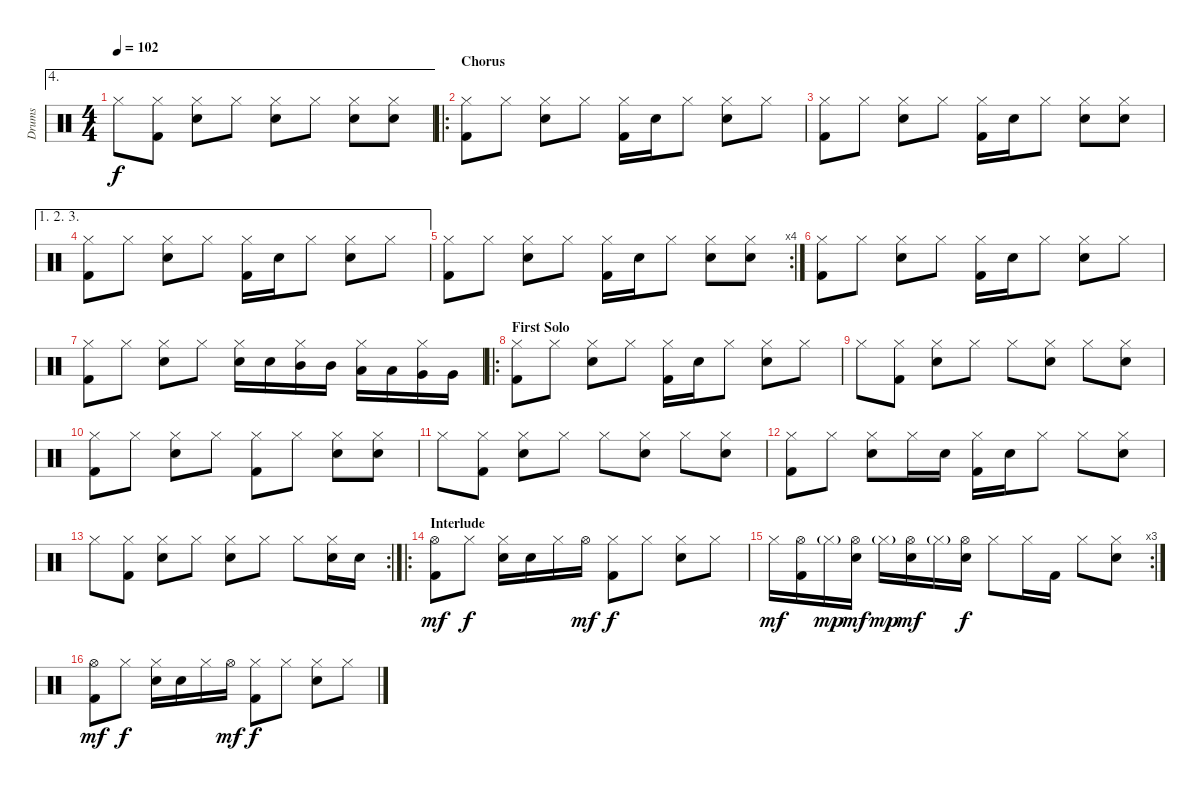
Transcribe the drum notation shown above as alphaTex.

\track ("Drums" "Drums") {instrument percussion}
\staff {score}
\articulation defaults
\ae 4
\ts (4 4)
\tempo 102
\clef neutral
\ks c "Hi-Hat (closed)".8{dy f}
("Hi-Hat (closed)" "Kick (hit) 2").8 ("Hi-Hat (closed)" "Electric Snare (hit)").8 "Hi-Hat (closed)".8 ("Hi-Hat (closed)" "Electric Snare (hit)").8 "Hi-Hat (closed)".8 ("Hi-Hat (closed)" "Electric Snare (hit)").8 ("Hi-Hat (closed)" "Electric Snare (hit)").8 |
\ro
\section ("" "Chorus")
("Hi-Hat (closed)" "Kick (hit) 2").8 "Hi-Hat (closed)".8 ("Hi-Hat (closed)" "Electric Snare (hit)").8 "Hi-Hat (closed)".8 ("Hi-Hat (closed)" "Kick (hit) 2").16 "Electric Snare (hit)".16 "Hi-Hat (closed)".8 ("Hi-Hat (closed)" "Electric Snare (hit)").8 "Hi-Hat (closed)".8 |
("Hi-Hat (closed)" "Kick (hit) 2").8 "Hi-Hat (closed)".8 ("Hi-Hat (closed)" "Electric Snare (hit)").8 "Hi-Hat (closed)".8 ("Hi-Hat (closed)" "Kick (hit) 2").16 "Electric Snare (hit)".16 "Hi-Hat (closed)".8 ("Hi-Hat (closed)" "Electric Snare (hit)").8 ("Hi-Hat (closed)" "Electric Snare (hit)").8 |
\ae (1 2 3)
("Hi-Hat (closed)" "Kick (hit) 2").8 "Hi-Hat (closed)".8 ("Hi-Hat (closed)" "Electric Snare (hit)").8 "Hi-Hat (closed)".8 ("Hi-Hat (closed)" "Kick (hit) 2").16 "Electric Snare (hit)".16 "Hi-Hat (closed)".8 ("Hi-Hat (closed)" "Electric Snare (hit)").8 "Hi-Hat (closed)".8 |
\rc 4
("Hi-Hat (closed)" "Kick (hit) 2").8 "Hi-Hat (closed)".8 ("Hi-Hat (closed)" "Electric Snare (hit)").8 "Hi-Hat (closed)".8 ("Hi-Hat (closed)" "Kick (hit) 2").16 "Electric Snare (hit)".16 "Hi-Hat (closed)".8 ("Hi-Hat (closed)" "Electric Snare (hit)").8 ("Hi-Hat (closed)" "Electric Snare (hit)").8 |
("Hi-Hat (closed)" "Kick (hit) 2").8 "Hi-Hat (closed)".8 ("Hi-Hat (closed)" "Electric Snare (hit)").8 "Hi-Hat (closed)".8 ("Hi-Hat (closed)" "Kick (hit) 2").16 "Electric Snare (hit)".16 "Hi-Hat (closed)".8 ("Hi-Hat (closed)" "Electric Snare (hit)").8 "Hi-Hat (closed)".8 |
("Hi-Hat (closed)" "Kick (hit) 2").8 "Hi-Hat (closed)".8 ("Hi-Hat (closed)" "Electric Snare (hit)").8 "Hi-Hat (closed)".8 ("Hi-Hat (closed)" "Electric Snare (hit)").16 "Electric Snare (hit)".16 ("Hi-Hat (closed)" "Mid Tom (hit)").16 "Mid Tom (hit)".16 ("Hi-Hat (closed)" "Low Tom (hit)").16 "Low Tom (hit)".16 ("Hi-Hat (closed)" "Very Low Tom (hit)").16 "Very Low Tom (hit)".16 |
\ro
\section ("" "First Solo")
("Hi-Hat (closed)" "Kick (hit) 2").8 "Hi-Hat (closed)".8 ("Hi-Hat (closed)" "Electric Snare (hit)").8 "Hi-Hat (closed)".8 ("Hi-Hat (closed)" "Kick (hit) 2").16 "Electric Snare (hit)".16 "Hi-Hat (closed)".8 ("Hi-Hat (closed)" "Electric Snare (hit)").8 "Hi-Hat (closed)".8 |
"Hi-Hat (closed)".8 ("Hi-Hat (closed)" "Kick (hit) 2").8 ("Hi-Hat (closed)" "Electric Snare (hit)").8 "Hi-Hat (closed)".8 "Hi-Hat (closed)".8 ("Hi-Hat (closed)" "Electric Snare (hit)").8 "Hi-Hat (closed)".8 ("Hi-Hat (closed)" "Electric Snare (hit)").8 |
("Hi-Hat (closed)" "Kick (hit) 2").8 "Hi-Hat (closed)".8 ("Hi-Hat (closed)" "Electric Snare (hit)").8 "Hi-Hat (closed)".8 ("Hi-Hat (closed)" "Kick (hit) 2").8 "Hi-Hat (closed)".8 ("Hi-Hat (closed)" "Electric Snare (hit)").8 ("Hi-Hat (closed)" "Electric Snare (hit)").8 |
"Hi-Hat (closed)".8 ("Hi-Hat (closed)" "Kick (hit) 2").8 ("Hi-Hat (closed)" "Electric Snare (hit)").8 "Hi-Hat (closed)".8 "Hi-Hat (closed)".8 ("Hi-Hat (closed)" "Electric Snare (hit)").8 "Hi-Hat (closed)".8 ("Hi-Hat (closed)" "Electric Snare (hit)").8 |
("Hi-Hat (closed)" "Kick (hit) 2").8 "Hi-Hat (closed)".8 ("Hi-Hat (closed)" "Electric Snare (hit)").8 "Hi-Hat (closed)".16 "Electric Snare (hit)".16 ("Hi-Hat (closed)" "Kick (hit) 2").16 "Electric Snare (hit)".16 "Hi-Hat (closed)".8 "Hi-Hat (closed)".8 ("Hi-Hat (closed)" "Electric Snare (hit)").8 |
\rc 2 "Hi-Hat (closed)".8
("Hi-Hat (closed)" "Kick (hit) 2").8 ("Hi-Hat (closed)" "Electric Snare (hit)").8 "Hi-Hat (closed)".8 ("Hi-Hat (closed)" "Electric Snare (hit)").8 "Hi-Hat (closed)".8 "Hi-Hat (closed)".8 ("Hi-Hat (closed)" "Electric Snare (hit)").16 "Electric Snare (hit)".16 |
\ro
\section ("" "Interlude")
("Hi-Hat (open)" "Kick (hit) 2").8{dy mf} "Hi-Hat (closed)".8{dy f} ("Hi-Hat (closed)" "Electric Snare (hit)").16 "Electric Snare (hit)".16 "Hi-Hat (closed)".16 "Hi-Hat (open)".16{dy mf} ("Hi-Hat (closed)" "Kick (hit) 2").8{dy f} "Hi-Hat (closed)".8 ("Hi-Hat (closed)" "Electric Snare (hit)").8 "Hi-Hat (closed)".8 |
\rc 3 "Hi-Hat (closed)".16{dy mf}
("Hi-Hat (open)" "Kick (hit) 2").16 "Hi-Hat (closed)"{g}.16{dy mp} ("Hi-Hat (open)" "Electric Snare (hit)").16{dy mf} "Hi-Hat (closed)"{g}.16{dy mp} ("Hi-Hat (open)" "Electric Snare (hit)").16{dy mf} "Hi-Hat (closed)"{g}.16 ("Hi-Hat (open)" "Electric Snare (hit)").16{dy f} "Hi-Hat (closed)".8 "Hi-Hat (closed)".16 "Kick (hit) 2".16 "Hi-Hat (closed)".8 ("Hi-Hat (closed)" "Electric Snare (hit)").8 |
("Hi-Hat (open)" "Kick (hit) 2").8{dy mf} "Hi-Hat (closed)".8{dy f} ("Hi-Hat (closed)" "Electric Snare (hit)").16 "Electric Snare (hit)".16 "Hi-Hat (closed)".16 "Hi-Hat (open)".16{dy mf} ("Hi-Hat (closed)" "Kick (hit) 2").8{dy f} "Hi-Hat (closed)".8 ("Hi-Hat (closed)" "Electric Snare (hit)").8 "Hi-Hat (closed)".8
